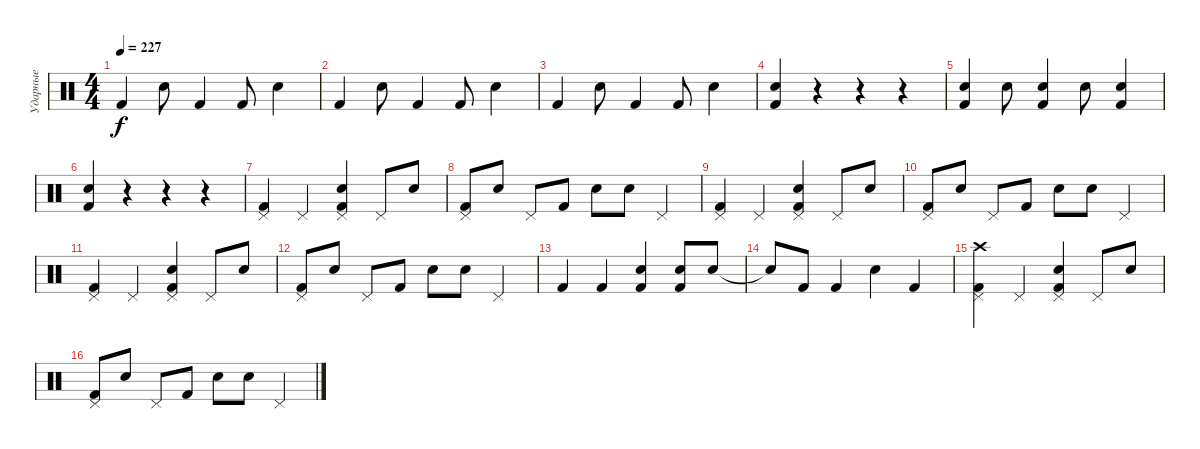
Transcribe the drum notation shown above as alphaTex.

\track ("Ударные" "Ударные") {instrument percussion}
\staff {score}
\articulation defaults
\ts (4 4)
\tempo 227
\clef neutral
\ks c "Kick (hit) 2".4{dy f} "Snare (hit) 2".8 "Kick (hit) 2".4 "Kick (hit) 2".8 "Snare (hit) 2".4
|
"Kick (hit) 2".4 "Snare (hit) 2".8 "Kick (hit) 2".4 "Kick (hit) 2".8 "Snare (hit) 2".4 |
"Kick (hit) 2".4 "Snare (hit) 2".8 "Kick (hit) 2".4 "Kick (hit) 2".8 "Snare (hit) 2".4 |
("Kick (hit) 2" "Snare (hit) 2").4 r.4 r.4 r.4 |
("Kick (hit) 2" "Snare (hit) 2").4 "Snare (hit) 2".8 ("Kick (hit) 2" "Snare (hit) 2").4 "Snare (hit) 2".8 ("Kick (hit) 2" "Snare (hit) 2").4 |
("Kick (hit) 2" "Snare (hit) 2").4 r.4 r.4 r.4 |
("Kick (hit) 2" "Pedal Hi-Hat (hit)").4 "Pedal Hi-Hat (hit)".4 ("Kick (hit) 2" "Pedal Hi-Hat (hit)" "Snare (hit) 2").4 "Pedal Hi-Hat (hit)".8 "Snare (hit) 2".8 |
("Kick (hit) 2" "Pedal Hi-Hat (hit)").8 "Snare (hit) 2".8 "Pedal Hi-Hat (hit)".8 "Kick (hit) 2".8 "Snare (hit) 2".8 "Snare (hit) 2".8 "Pedal Hi-Hat (hit)".4 |
("Kick (hit) 2" "Pedal Hi-Hat (hit)").4 "Pedal Hi-Hat (hit)".4 ("Kick (hit) 2" "Pedal Hi-Hat (hit)" "Snare (hit) 2").4 "Pedal Hi-Hat (hit)".8 "Snare (hit) 2".8 |
("Kick (hit) 2" "Pedal Hi-Hat (hit)").8 "Snare (hit) 2".8 "Pedal Hi-Hat (hit)".8 "Kick (hit) 2".8 "Snare (hit) 2".8 "Snare (hit) 2".8 "Pedal Hi-Hat (hit)".4 |
("Kick (hit) 2" "Pedal Hi-Hat (hit)").4 "Pedal Hi-Hat (hit)".4 ("Kick (hit) 2" "Pedal Hi-Hat (hit)" "Snare (hit) 2").4 "Pedal Hi-Hat (hit)".8 "Snare (hit) 2".8 |
("Kick (hit) 2" "Pedal Hi-Hat (hit)").8 "Snare (hit) 2".8 "Pedal Hi-Hat (hit)".8 "Kick (hit) 2".8 "Snare (hit) 2".8 "Snare (hit) 2".8 "Pedal Hi-Hat (hit)".4 |
"Kick (hit) 2".4 "Kick (hit) 2".4 ("Kick (hit) 2" "Snare (hit) 2").4 ("Kick (hit) 2" "Snare (hit) 2").8 "Snare (hit) 2".8 |
"Snare (hit)"{t}.8 "Kick (hit) 2".8 "Kick (hit) 2".4 "Snare (hit) 2".4 "Kick (hit) 2".4 |
("Kick (hit) 2" "Pedal Hi-Hat (hit)" "Crash high (hit)").4 "Pedal Hi-Hat (hit)".4 ("Kick (hit) 2" "Pedal Hi-Hat (hit)" "Snare (hit) 2").4 "Pedal Hi-Hat (hit)".8 "Snare (hit) 2".8 |
("Kick (hit) 2" "Pedal Hi-Hat (hit)").8 "Snare (hit) 2".8 "Pedal Hi-Hat (hit)".8 "Kick (hit) 2".8 "Snare (hit) 2".8 "Snare (hit) 2".8 "Pedal Hi-Hat (hit)".4
